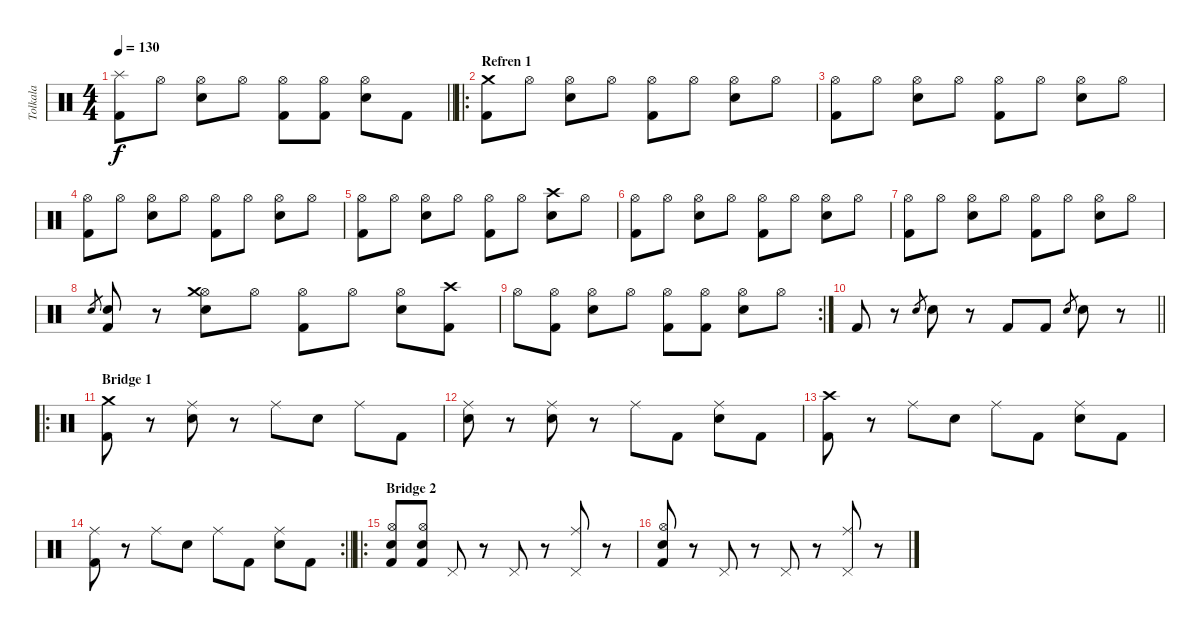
\track ("Tolkala" "Tolkala") {instrument percussion}
\staff {score}
\articulation defaults
\ts (4 4)
\tempo 130
\clef neutral
\barLineRight lightlight
\ks c
("Splash (hit)" "Kick (hit) 2").8{dy f} "Hi-Hat (open)".8 ("Hi-Hat (open)" "Snare (hit) 2").8 "Hi-Hat (open)".8 ("Hi-Hat (open)" "Kick (hit) 2").8 ("Hi-Hat (open)" "Kick (hit) 2").8 ("Hi-Hat (open)" "Snare (hit) 2").8 "Kick (hit) 2".8 |
\ro
\section ("" "Refren 1")
("Crash medium (hit)" "Kick (hit) 2").8 "Hi-Hat (open)".8 ("Hi-Hat (open)" "Snare (hit) 2").8 "Hi-Hat (open)".8 ("Hi-Hat (open)" "Kick (hit) 2").8 "Hi-Hat (open)".8 ("Hi-Hat (open)" "Snare (hit) 2").8 "Hi-Hat (open)".8 |
("Hi-Hat (open)" "Kick (hit) 2").8 "Hi-Hat (open)".8 ("Hi-Hat (open)" "Snare (hit) 2").8 "Hi-Hat (open)".8 ("Hi-Hat (open)" "Kick (hit) 2").8 "Hi-Hat (open)".8 ("Hi-Hat (open)" "Snare (hit) 2").8 "Hi-Hat (open)".8 |
("Hi-Hat (open)" "Kick (hit) 2").8 "Hi-Hat (open)".8 ("Hi-Hat (open)" "Snare (hit) 2").8 "Hi-Hat (open)".8 ("Hi-Hat (open)" "Kick (hit) 2").8 "Hi-Hat (open)".8 ("Hi-Hat (open)" "Snare (hit) 2").8 "Hi-Hat (open)".8 |
("Hi-Hat (open)" "Kick (hit) 2").8 "Hi-Hat (open)".8 ("Hi-Hat (open)" "Snare (hit) 2").8 "Hi-Hat (open)".8 ("Hi-Hat (open)" "Kick (hit) 2").8 "Hi-Hat (open)".8 ("Crash high (hit)" "Snare (hit) 2").8 "Hi-Hat (open)".8 |
("Hi-Hat (open)" "Kick (hit) 2").8 "Hi-Hat (open)".8 ("Hi-Hat (open)" "Snare (hit) 2").8 "Hi-Hat (open)".8 ("Hi-Hat (open)" "Kick (hit) 2").8 "Hi-Hat (open)".8 ("Hi-Hat (open)" "Snare (hit) 2").8 "Hi-Hat (open)".8 |
("Hi-Hat (open)" "Kick (hit) 2").8 "Hi-Hat (open)".8 ("Hi-Hat (open)" "Snare (hit) 2").8 "Hi-Hat (open)".8 ("Hi-Hat (open)" "Kick (hit) 2").8 "Hi-Hat (open)".8 ("Hi-Hat (open)" "Snare (hit) 2").8 "Hi-Hat (open)".8 |
"Snare (hit) 2".8{gr} ("Snare (hit) 2" "Kick (hit) 2").8 r.8 ("Hi-Hat (open)" "Crash medium (hit)" "Snare (hit) 2").8 "Hi-Hat (open)".8 ("Hi-Hat (open)" "Kick (hit) 2").8 "Hi-Hat (open)".8 ("Hi-Hat (open)" "Snare (hit) 2").8 ("Crash high (hit)" "Kick (hit) 2").8 |
\rc 2 "Hi-Hat (open)".8
("Hi-Hat (open)" "Kick (hit) 2").8 ("Hi-Hat (open)" "Snare (hit) 2").8 "Hi-Hat (open)".8 ("Hi-Hat (open)" "Kick (hit) 2").8 ("Hi-Hat (open)" "Kick (hit) 2").8 ("Hi-Hat (open)" "Snare (hit) 2").8 "Hi-Hat (open)".8 |
\barLineRight lightlight "Kick (hit) 2".8
r.8 "Snare (hit) 2".8{gr} "Snare (hit) 2".8 r.8 "Kick (hit) 2".8 "Kick (hit) 2".8 "Snare (hit) 2".8{gr} "Snare (hit) 2".8 r.8 |
\ro
\section ("" "Bridge 1")
("Crash medium (hit)" "Kick (hit) 2").8 r.8 ("Ride (middle)" "Snare (hit) 2").8 r.8 "Ride (middle)".8 "Snare (hit) 2".8 "Ride (middle)".8 "Kick (hit) 2".8 |
("Ride (middle)" "Snare (hit) 2").8 r.8 ("Ride (middle)" "Snare (hit) 2").8 r.8 "Ride (middle)".8 "Kick (hit) 2".8 ("Ride (middle)" "Snare (hit) 2").8 "Kick (hit) 2".8 |
("Crash high (hit)" "Kick (hit) 2").8 r.8 "Ride (middle)".8 "Snare (hit) 2".8 "Ride (middle)".8 "Kick (hit) 2".8 ("Ride (middle)" "Snare (hit) 2").8 "Kick (hit) 2".8 |
\rc 2
\barLineRight lightlight
("Ride (middle)" "Kick (hit) 2").8 r.8 "Ride (middle)".8 "Snare (hit) 2".8 "Ride (middle)".8 "Kick (hit) 2".8 ("Ride (middle)" "Snare (hit) 2").8 "Kick (hit) 2".8 |
\ro
\section ("" "Bridge 2")
("Hi-Hat (open)" "Snare (hit) 2" "Kick (hit) 2").8 ("Hi-Hat (open)" "Snare (hit) 2" "Kick (hit) 2").8 "Pedal Hi-Hat (hit)".8 r.8 "Pedal Hi-Hat (hit)".8 r.8 ("Pedal Hi-Hat (hit)" "Ride (middle)").8 r.8 |
("Hi-Hat (open)" "Snare (hit) 2" "Kick (hit) 2").8 r.8 "Pedal Hi-Hat (hit)".8 r.8 "Pedal Hi-Hat (hit)".8 r.8 ("Pedal Hi-Hat (hit)" "Ride (middle)").8 r.8
